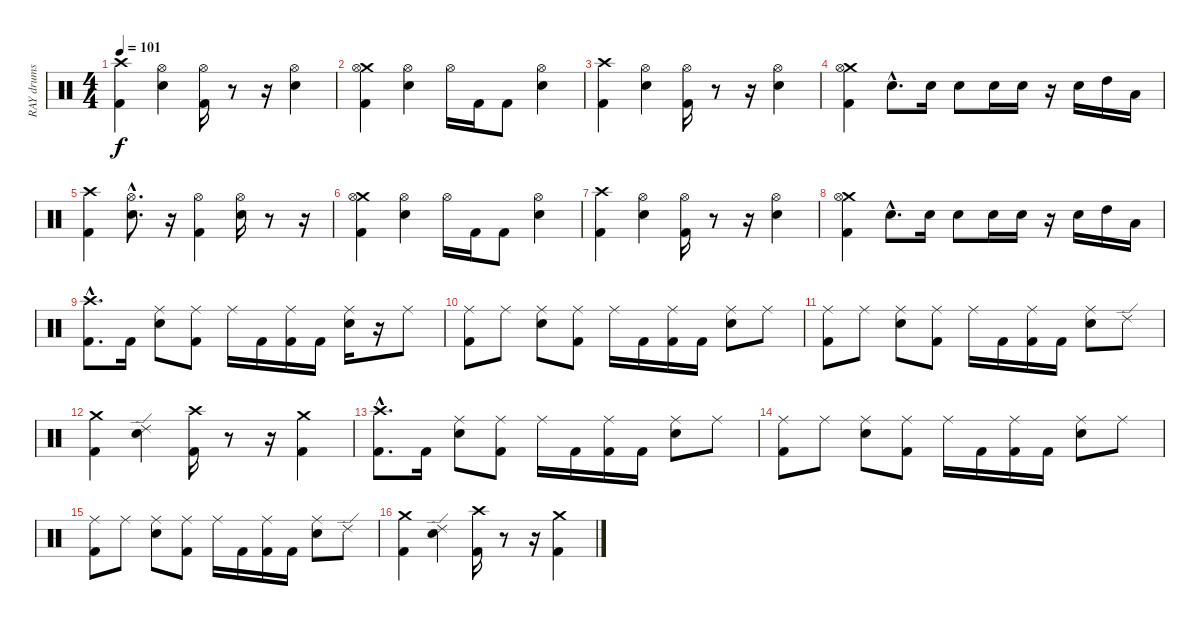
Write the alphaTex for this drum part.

\track ("RAY drums" "RAY drums") {instrument percussion}
\staff {score}
\articulation defaults
\ts (4 4)
\tempo 101
\clef neutral
\ks c
("Crash high (hit)" "Kick (hit) 2").4{dy f} ("Hi-Hat (open)" "Electric Snare (hit)").4 ("Hi-Hat (open)" "Kick (hit) 2").16 r.8 r.16 ("Hi-Hat (open)" "Electric Snare (hit)").4 |
("Crash medium (hit)" "Hi-Hat (open)" "Kick (hit) 2").4 ("Hi-Hat (open)" "Electric Snare (hit)").4 "Hi-Hat (open)".16 "Kick (hit) 2".16 "Kick (hit) 2".8 ("Hi-Hat (open)" "Electric Snare (hit)").4 |
("Kick (hit) 2" "Crash high (hit)").4 ("Electric Snare (hit)" "Hi-Hat (open)").4 ("Kick (hit) 2" "Hi-Hat (open)").16 r.8 r.16 ("Electric Snare (hit)" "Hi-Hat (open)").4 |
("Crash medium (hit)" "Kick (hit) 2" "Hi-Hat (open)").4 "Electric Snare (hit)"{hac}.8{d} "Electric Snare (hit)".16 "Electric Snare (hit)".8 "Electric Snare (hit)".16 "Electric Snare (hit)".16 r.16 "Electric Snare (hit)".16 "High Tom (hit)".16 "Low Tom (hit)".16 |
("Crash high (hit)" "Kick (hit) 2").4 ("Hi-Hat (open)"{hac} "Electric Snare (hit)"{hac}).8{d} r.16 ("Hi-Hat (open)" "Kick (hit) 2").4 ("Hi-Hat (open)" "Electric Snare (hit)").16 r.8 r.16 |
("Crash medium (hit)" "Hi-Hat (open)" "Kick (hit) 2").4 ("Hi-Hat (open)" "Electric Snare (hit)").4 "Hi-Hat (open)".16 "Kick (hit) 2".16 "Kick (hit) 2".8 ("Hi-Hat (open)" "Electric Snare (hit)").4 |
("Kick (hit) 2" "Crash high (hit)").4 ("Electric Snare (hit)" "Hi-Hat (open)").4 ("Kick (hit) 2" "Hi-Hat (open)").16 r.8 r.16 ("Electric Snare (hit)" "Hi-Hat (open)").4 |
("Crash medium (hit)" "Kick (hit) 2" "Hi-Hat (open)").4 "Electric Snare (hit)"{hac}.8{d} "Electric Snare (hit)".16 "Electric Snare (hit)".8 "Electric Snare (hit)".16 "Electric Snare (hit)".16 r.16 "Electric Snare (hit)".16 "High Tom (hit)".16 "Low Tom (hit)".16 |
("Crash high (hit)"{hac} "Kick (hit) 2"{hac}).8{d} "Kick (hit) 2".16 ("Ride (middle)" "Electric Snare (hit)").8 ("Ride (middle)" "Kick (hit) 2").8 "Ride (middle)".16 "Kick (hit) 2".16 ("Ride (middle)" "Kick (hit) 2").16 "Kick (hit) 2".16 ("Ride (middle)" "Electric Snare (hit)").16 r.16 "Ride (middle)".8 |
("Ride (middle)" "Kick (hit) 2").8 "Ride (middle)".8 ("Ride (middle)" "Electric Snare (hit)").8 ("Ride (middle)" "Kick (hit) 2").8 "Ride (middle)".16 "Kick (hit) 2".16 ("Ride (middle)" "Kick (hit) 2").16 "Kick (hit) 2".16 ("Ride (middle)" "Electric Snare (hit)").8 "Ride (middle)".8 |
("Ride (middle)" "Kick (hit) 2").8 "Ride (middle)".8 ("Ride (middle)" "Electric Snare (hit)").8 ("Ride (middle)" "Kick (hit) 2").8 "Ride (middle)".16 "Kick (hit) 2".16 ("Ride (middle)" "Kick (hit) 2").16 "Kick (hit) 2".16 ("Ride (middle)" "Electric Snare (hit)").8 "Ride (edge) 2".8 |
("Kick (hit) 2" "Crash medium (hit)").4 ("Ride (edge) 2" "Electric Snare (hit)").4 ("Crash high (hit)" "Kick (hit) 2").16 r.8 r.16 ("Crash medium (hit)" "Kick (hit) 2").4 |
("Crash high (hit)"{hac} "Kick (hit) 2"{hac}).8{d} "Kick (hit) 2".16 ("Ride (middle)" "Electric Snare (hit)").8 ("Ride (middle)" "Kick (hit) 2").8 "Ride (middle)".16 "Kick (hit) 2".16 ("Ride (middle)" "Kick (hit) 2").16 "Kick (hit) 2".16 ("Ride (middle)" "Electric Snare (hit)").8 "Ride (middle)".8 |
("Ride (middle)" "Kick (hit) 2").8 "Ride (middle)".8 ("Ride (middle)" "Electric Snare (hit)").8 ("Ride (middle)" "Kick (hit) 2").8 "Ride (middle)".16 "Kick (hit) 2".16 ("Ride (middle)" "Kick (hit) 2").16 "Kick (hit) 2".16 ("Ride (middle)" "Electric Snare (hit)").8 "Ride (middle)".8 |
("Ride (middle)" "Kick (hit) 2").8 "Ride (middle)".8 ("Ride (middle)" "Electric Snare (hit)").8 ("Ride (middle)" "Kick (hit) 2").8 "Ride (middle)".16 "Kick (hit) 2".16 ("Ride (middle)" "Kick (hit) 2").16 "Kick (hit) 2".16 ("Ride (middle)" "Electric Snare (hit)").8 "Ride (edge) 2".8 |
("Kick (hit) 2" "Crash medium (hit)").4 ("Ride (edge) 2" "Electric Snare (hit)").4 ("Crash high (hit)" "Kick (hit) 2").16 r.8 r.16 ("Crash medium (hit)" "Kick (hit) 2").4
